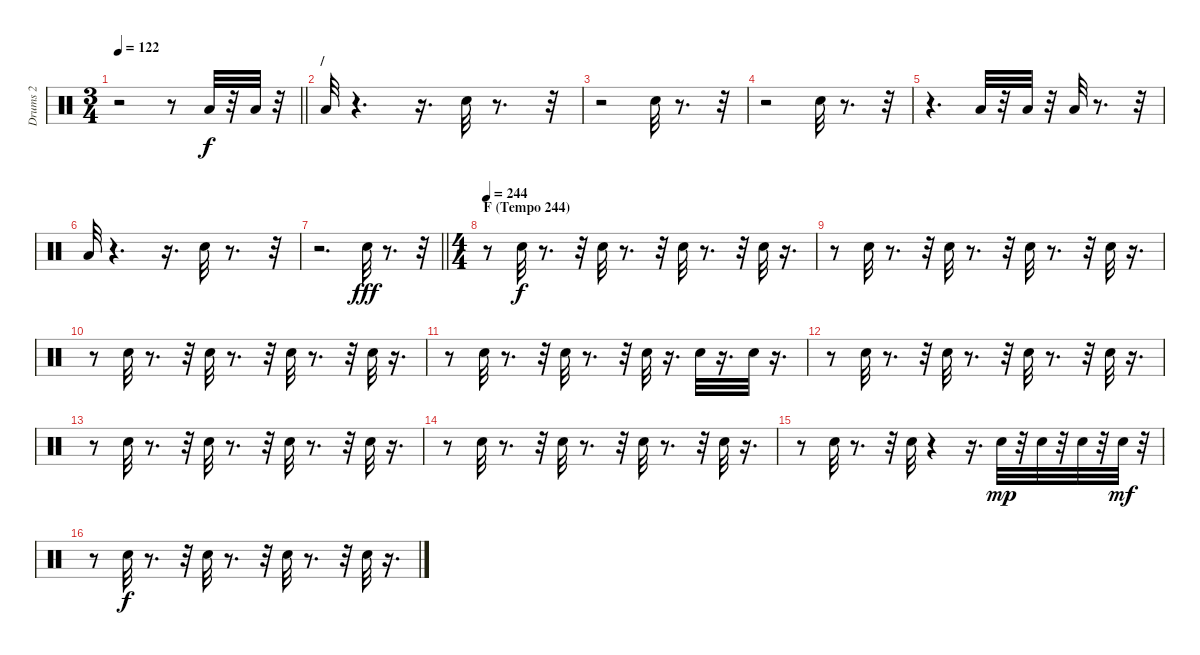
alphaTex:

\track ("Drums 2" "Drums 2") {instrument percussion}
\staff {score}
\articulation defaults
\ts (3 4)
\tempo 122
\clef neutral
\barLineRight lightlight
\ks c
r.2{dy f} r.8 "Low Floor Tom (hit)".32 r.32 "Low Floor Tom (hit)".32 r.32 |
\section ("" "/")
"Low Floor Tom (hit)".32 r.4{d} r.16{d} "Electric Snare (hit)".32 r.8{d} r.32 |
r.2 "Electric Snare (hit)".32 r.8{d} r.32 |
r.2 "Electric Snare (hit)".32 r.8{d} r.32 |
r.4{d} "Low Floor Tom (hit)".32 r.32 "Low Floor Tom (hit)".32 r.32 "Low Floor Tom (hit)".32 r.8{d} r.32 |
"Low Floor Tom (hit)".32 r.4{d} r.16{d} "Electric Snare (hit)".32 r.8{d} r.32 |
\barLineRight lightlight
r.2{d} "Electric Snare (hit)".32{dy fff} r.8{d} r.32 |
\ts (4 4)
\section ("" "F (Tempo 244)")
\tempo 244
r.8 "Electric Snare (hit)".32{dy f} r.8{d} r.32 "Electric Snare (hit)".32 r.8{d} r.32 "Electric Snare (hit)".32 r.8{d} r.32 "Electric Snare (hit)".32 r.16{d} |
r.8 "Electric Snare (hit)".32 r.8{d} r.32 "Electric Snare (hit)".32 r.8{d} r.32 "Electric Snare (hit)".32 r.8{d} r.32 "Electric Snare (hit)".32 r.16{d} |
r.8 "Electric Snare (hit)".32 r.8{d} r.32 "Electric Snare (hit)".32 r.8{d} r.32 "Electric Snare (hit)".32 r.8{d} r.32 "Electric Snare (hit)".32 r.16{d} |
r.8 "Electric Snare (hit)".32 r.8{d} r.32 "Electric Snare (hit)".32 r.8{d} r.32 "Electric Snare (hit)".32 r.16{d} "Electric Snare (hit)".32 r.16{d} "Electric Snare (hit)".32 r.16{d} |
r.8 "Electric Snare (hit)".32 r.8{d} r.32 "Electric Snare (hit)".32 r.8{d} r.32 "Electric Snare (hit)".32 r.8{d} r.32 "Electric Snare (hit)".32 r.16{d} |
r.8 "Electric Snare (hit)".32 r.8{d} r.32 "Electric Snare (hit)".32 r.8{d} r.32 "Electric Snare (hit)".32 r.8{d} r.32 "Electric Snare (hit)".32 r.16{d} |
r.8 "Electric Snare (hit)".32 r.8{d} r.32 "Electric Snare (hit)".32 r.8{d} r.32 "Electric Snare (hit)".32 r.8{d} r.32 "Electric Snare (hit)".32 r.16{d} |
r.8 "Electric Snare (hit)".32 r.8{d} r.32 "Electric Snare (hit)".32 r.4 r.16{d} "Electric Snare (hit)".32{dy mp} r.32 "Electric Snare (hit)".32 r.32 "Electric Snare (hit)".32 r.32 "Electric Snare (hit)".32{dy mf} r.32 |
r.8 "Electric Snare (hit)".32{dy f} r.8{d} r.32 "Electric Snare (hit)".32 r.8{d} r.32 "Electric Snare (hit)".32 r.8{d} r.32 "Electric Snare (hit)".32 r.16{d}
